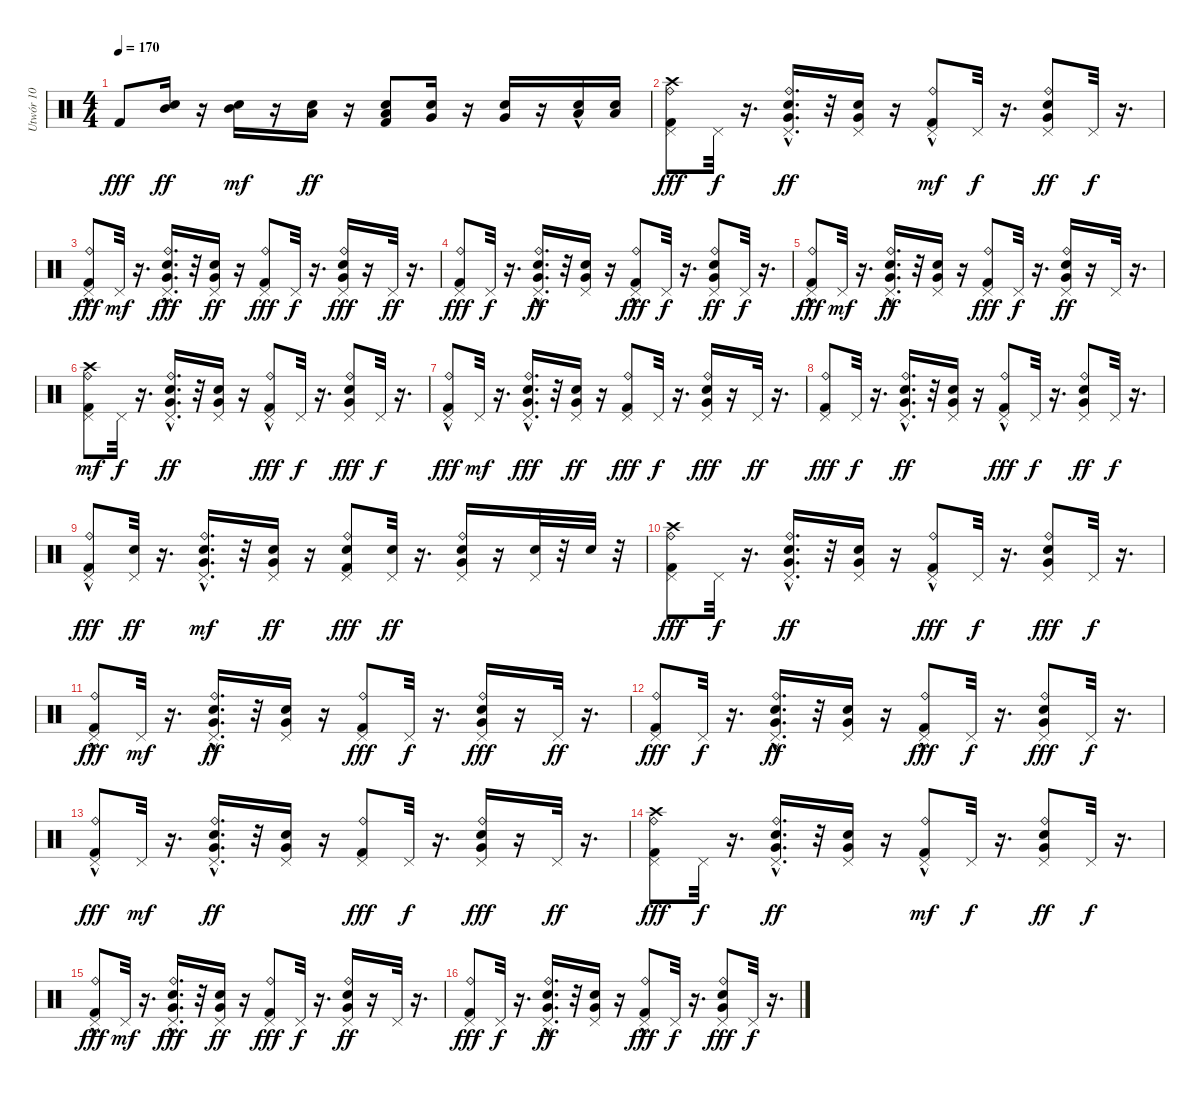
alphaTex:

\track ("Utwór 10" "Utwór 10") {instrument percussion}
\staff {score}
\articulation defaults
\ts (4 4)
\tempo 170
\clef neutral
\ks c "Kick (hit) 2".8{dy fff}
("Snare (hit) 2" "Mid Tom (hit)").16{dy ff} r.16 ("Mid Tom (hit)" "Snare (hit) 2").16{dy mf} r.16 ("Low Tom (hit)" "Snare (hit) 2").16{dy ff} r.16 ("Kick (hit) 2" "Snare (hit) 2" "Low Tom (hit)").8 ("Very Low Tom (hit)" "Snare (hit) 2").16 r.16 ("Snare (hit) 2" "Very Low Tom (hit)").16 r.16 ("Low Tom (hit)"{hac} "Snare (hit) 2").16 ("Snare (hit) 2" "Low Floor Tom (hit)").16 |
("Kick (hit) 2" "Ride (bell)" "Pedal Hi-Hat (hit)" "Crash high (hit)").8{dy fff} "Pedal Hi-Hat (hit)".32{dy f} r.16{d} ("Ride (bell)"{hac} "Snare (hit) 2" "Pedal Hi-Hat (hit)" "Very Low Tom (hit)").16{d dy ff} r.32 ("Very Low Tom (hit)" "Snare (hit) 2" "Pedal Hi-Hat (hit)").16 r.16 ("Ride (bell)"{hac} "Kick (hit) 2" "Pedal Hi-Hat (hit)").8{dy mf} "Pedal Hi-Hat (hit)".32{dy f} r.16{d} ("Ride (bell)" "Snare (hit) 2" "Pedal Hi-Hat (hit)" "Very Low Tom (hit)").8{dy ff} "Pedal Hi-Hat (hit)".32{dy f} r.16{d} |
("Pedal Hi-Hat (hit)" "Ride (bell)"{hac} "Kick (hit) 2"{hac}).8{dy fff} "Pedal Hi-Hat (hit)".32{dy mf} r.16{d} ("Snare (hit) 2" "Very Low Tom (hit)" "Ride (bell)"{hac} "Pedal Hi-Hat (hit)").16{d dy fff} r.32 ("Snare (hit) 2" "Very Low Tom (hit)" "Pedal Hi-Hat (hit)").16{dy ff} r.16 ("Kick (hit) 2" "Pedal Hi-Hat (hit)" "Ride (bell)").8{dy fff} "Pedal Hi-Hat (hit)".32{dy f} r.16{d} ("Snare (hit) 2" "Pedal Hi-Hat (hit)" "Very Low Tom (hit)" "Ride (bell)").16{dy fff} r.16 "Pedal Hi-Hat (hit)".32{dy ff} r.16{d} |
("Kick (hit) 2" "Pedal Hi-Hat (hit)" "Ride (bell)").8{dy fff} "Pedal Hi-Hat (hit)".32{dy f} r.16{d} ("Ride (bell)"{hac} "Pedal Hi-Hat (hit)" "Very Low Tom (hit)" "Snare (hit) 2").16{d dy ff} r.32 ("Very Low Tom (hit)" "Pedal Hi-Hat (hit)" "Snare (hit) 2").16 r.16 ("Pedal Hi-Hat (hit)" "Ride (bell)"{hac} "Kick (hit) 2").8{dy fff} "Pedal Hi-Hat (hit)".32{dy f} r.16{d} ("Ride (bell)" "Snare (hit) 2" "Pedal Hi-Hat (hit)" "Very Low Tom (hit)").8{dy ff} "Pedal Hi-Hat (hit)".32{dy f} r.16{d} |
("Ride (bell)"{hac} "Kick (hit) 2"{hac} "Pedal Hi-Hat (hit)").8{dy fff} "Pedal Hi-Hat (hit)".32{dy mf} r.16{d} ("Very Low Tom (hit)" "Pedal Hi-Hat (hit)" "Ride (bell)"{hac} "Snare (hit) 2").16{d dy ff} r.32 ("Snare (hit) 2" "Pedal Hi-Hat (hit)" "Very Low Tom (hit)").16 r.16 ("Pedal Hi-Hat (hit)" "Ride (bell)" "Kick (hit) 2").8{dy fff} "Pedal Hi-Hat (hit)".32{dy f} r.16{d} ("Pedal Hi-Hat (hit)" "Ride (bell)" "Snare (hit) 2" "Very Low Tom (hit)").16{dy ff} r.16 "Pedal Hi-Hat (hit)".32 r.16{d} |
("Ride (bell)" "Crash high (hit)" "Kick (hit) 2" "Pedal Hi-Hat (hit)").8{dy mf} "Pedal Hi-Hat (hit)".32{dy f} r.16{d} ("Very Low Tom (hit)" "Snare (hit) 2" "Ride (bell)"{hac} "Pedal Hi-Hat (hit)").16{d dy ff} r.32 ("Pedal Hi-Hat (hit)" "Snare (hit) 2" "Very Low Tom (hit)").16 r.16 ("Kick (hit) 2" "Pedal Hi-Hat (hit)" "Ride (bell)"{hac}).8{dy fff} "Pedal Hi-Hat (hit)".32{dy f} r.16{d} ("Snare (hit) 2" "Very Low Tom (hit)" "Pedal Hi-Hat (hit)" "Ride (bell)").8{dy fff} "Pedal Hi-Hat (hit)".32{dy f} r.16{d} |
("Ride (bell)"{hac} "Pedal Hi-Hat (hit)" "Kick (hit) 2"{hac}).8{dy fff} "Pedal Hi-Hat (hit)".32{dy mf} r.16{d} ("Snare (hit) 2" "Very Low Tom (hit)" "Pedal Hi-Hat (hit)" "Ride (bell)"{hac}).16{d dy fff} r.32 ("Very Low Tom (hit)" "Pedal Hi-Hat (hit)" "Snare (hit) 2").16{dy ff} r.16 ("Pedal Hi-Hat (hit)" "Kick (hit) 2" "Ride (bell)").8{dy fff} "Pedal Hi-Hat (hit)".32{dy f} r.16{d} ("Pedal Hi-Hat (hit)" "Very Low Tom (hit)" "Ride (bell)" "Snare (hit) 2").16{dy fff} r.16 "Pedal Hi-Hat (hit)".32{dy ff} r.16{d} |
("Pedal Hi-Hat (hit)" "Kick (hit) 2" "Ride (bell)").8{dy fff} "Pedal Hi-Hat (hit)".32{dy f} r.16{d} ("Snare (hit) 2" "Pedal Hi-Hat (hit)" "Ride (bell)"{hac} "Very Low Tom (hit)").16{d dy ff} r.32 ("Pedal Hi-Hat (hit)" "Very Low Tom (hit)" "Snare (hit) 2").16 r.16 ("Ride (bell)"{hac} "Pedal Hi-Hat (hit)" "Kick (hit) 2").8{dy fff} "Pedal Hi-Hat (hit)".32{dy f} r.16{d} ("Snare (hit) 2" "Pedal Hi-Hat (hit)" "Ride (bell)" "Very Low Tom (hit)").8{dy ff} "Pedal Hi-Hat (hit)".32{dy f} r.16{d} |
("Ride (bell)"{hac} "Kick (hit) 2"{hac} "Pedal Hi-Hat (hit)").8{dy fff} ("Pedal Hi-Hat (hit)" "Snare (hit) 2").32{dy ff} r.16{d} ("Ride (bell)"{hac} "Snare (hit) 2" "Very Low Tom (hit)" "Pedal Hi-Hat (hit)").16{d dy mf} r.32 ("Very Low Tom (hit)" "Pedal Hi-Hat (hit)" "Snare (hit) 2").16{dy ff} r.16 ("Pedal Hi-Hat (hit)" "Snare (hit) 2" "Ride (bell)" "Kick (hit) 2").8{dy fff} ("Snare (hit) 2" "Pedal Hi-Hat (hit)").32{dy ff} r.16{d} ("Pedal Hi-Hat (hit)" "Ride (bell)" "Very Low Tom (hit)" "Snare (hit) 2").16 r.16 ("Snare (hit) 2" "Pedal Hi-Hat (hit)").32 r.32 "Snare (hit) 2".32 r.32 |
("Pedal Hi-Hat (hit)" "Kick (hit) 2" "Ride (bell)" "Crash high (hit)").8{dy fff} "Pedal Hi-Hat (hit)".32{dy f} r.16{d} ("Pedal Hi-Hat (hit)" "Ride (bell)"{hac} "Snare (hit) 2" "Very Low Tom (hit)").16{d dy ff} r.32 ("Snare (hit) 2" "Very Low Tom (hit)" "Pedal Hi-Hat (hit)").16 r.16 ("Kick (hit) 2" "Pedal Hi-Hat (hit)" "Ride (bell)"{hac}).8{dy fff} "Pedal Hi-Hat (hit)".32{dy f} r.16{d} ("Very Low Tom (hit)" "Pedal Hi-Hat (hit)" "Snare (hit) 2" "Ride (bell)").8{dy fff} "Pedal Hi-Hat (hit)".32{dy f} r.16{d} |
("Pedal Hi-Hat (hit)" "Kick (hit) 2"{hac} "Ride (bell)"{hac}).8{dy fff} "Pedal Hi-Hat (hit)".32{dy mf} r.16{d} ("Pedal Hi-Hat (hit)" "Very Low Tom (hit)" "Ride (bell)"{hac} "Snare (hit) 2").16{d dy ff} r.32 ("Snare (hit) 2" "Pedal Hi-Hat (hit)" "Very Low Tom (hit)").16 r.16 ("Kick (hit) 2" "Ride (bell)" "Pedal Hi-Hat (hit)").8{dy fff} "Pedal Hi-Hat (hit)".32{dy f} r.16{d} ("Pedal Hi-Hat (hit)" "Very Low Tom (hit)" "Snare (hit) 2" "Ride (bell)").16{dy fff} r.16 "Pedal Hi-Hat (hit)".32{dy ff} r.16{d} |
("Ride (bell)" "Pedal Hi-Hat (hit)" "Kick (hit) 2").8{dy fff} "Pedal Hi-Hat (hit)".32{dy f} r.16{d} ("Ride (bell)"{hac} "Pedal Hi-Hat (hit)" "Snare (hit) 2" "Very Low Tom (hit)").16{d dy ff} r.32 ("Very Low Tom (hit)" "Snare (hit) 2" "Pedal Hi-Hat (hit)").16 r.16 ("Pedal Hi-Hat (hit)" "Kick (hit) 2" "Ride (bell)"{hac}).8{dy fff} "Pedal Hi-Hat (hit)".32{dy f} r.16{d} ("Very Low Tom (hit)" "Snare (hit) 2" "Ride (bell)" "Pedal Hi-Hat (hit)").8{dy fff} "Pedal Hi-Hat (hit)".32{dy f} r.16{d} |
("Kick (hit) 2"{hac} "Ride (bell)"{hac} "Pedal Hi-Hat (hit)").8{dy fff} "Pedal Hi-Hat (hit)".32{dy mf} r.16{d} ("Ride (bell)"{hac} "Very Low Tom (hit)" "Pedal Hi-Hat (hit)" "Snare (hit) 2").16{d dy ff} r.32 ("Pedal Hi-Hat (hit)" "Very Low Tom (hit)" "Snare (hit) 2").16 r.16 ("Ride (bell)" "Pedal Hi-Hat (hit)" "Kick (hit) 2").8{dy fff} "Pedal Hi-Hat (hit)".32{dy f} r.16{d} ("Pedal Hi-Hat (hit)" "Ride (bell)" "Very Low Tom (hit)" "Snare (hit) 2").16{dy fff} r.16 "Pedal Hi-Hat (hit)".32{dy ff} r.16{d} |
("Pedal Hi-Hat (hit)" "Ride (bell)" "Crash high (hit)" "Kick (hit) 2").8{dy fff} "Pedal Hi-Hat (hit)".32{dy f} r.16{d} ("Very Low Tom (hit)" "Pedal Hi-Hat (hit)" "Ride (bell)"{hac} "Snare (hit) 2").16{d dy ff} r.32 ("Pedal Hi-Hat (hit)" "Snare (hit) 2" "Very Low Tom (hit)").16 r.16 ("Ride (bell)"{hac} "Kick (hit) 2" "Pedal Hi-Hat (hit)").8{dy mf} "Pedal Hi-Hat (hit)".32{dy f} r.16{d} ("Pedal Hi-Hat (hit)" "Snare (hit) 2" "Ride (bell)" "Very Low Tom (hit)").8{dy ff} "Pedal Hi-Hat (hit)".32{dy f} r.16{d} |
("Ride (bell)"{hac} "Kick (hit) 2"{hac} "Pedal Hi-Hat (hit)").8{dy fff} "Pedal Hi-Hat (hit)".32{dy mf} r.16{d} ("Very Low Tom (hit)" "Snare (hit) 2" "Pedal Hi-Hat (hit)" "Ride (bell)"{hac}).16{d dy fff} r.32 ("Very Low Tom (hit)" "Pedal Hi-Hat (hit)" "Snare (hit) 2").16{dy ff} r.16 ("Pedal Hi-Hat (hit)" "Ride (bell)" "Kick (hit) 2").8{dy fff} "Pedal Hi-Hat (hit)".32{dy f} r.16{d} ("Ride (bell)" "Snare (hit) 2" "Pedal Hi-Hat (hit)" "Very Low Tom (hit)").16{dy ff} r.16 "Pedal Hi-Hat (hit)".32 r.16{d} |
("Pedal Hi-Hat (hit)" "Kick (hit) 2" "Ride (bell)").8{dy fff} "Pedal Hi-Hat (hit)".32{dy f} r.16{d} ("Pedal Hi-Hat (hit)" "Very Low Tom (hit)" "Ride (bell)"{hac} "Snare (hit) 2").16{d dy ff} r.32 ("Pedal Hi-Hat (hit)" "Snare (hit) 2" "Very Low Tom (hit)").16 r.16 ("Pedal Hi-Hat (hit)" "Kick (hit) 2" "Ride (bell)"{hac}).8{dy fff} "Pedal Hi-Hat (hit)".32{dy f} r.16{d} ("Very Low Tom (hit)" "Pedal Hi-Hat (hit)" "Snare (hit) 2" "Ride (bell)").8{dy fff} "Pedal Hi-Hat (hit)".32{dy f} r.16{d}
